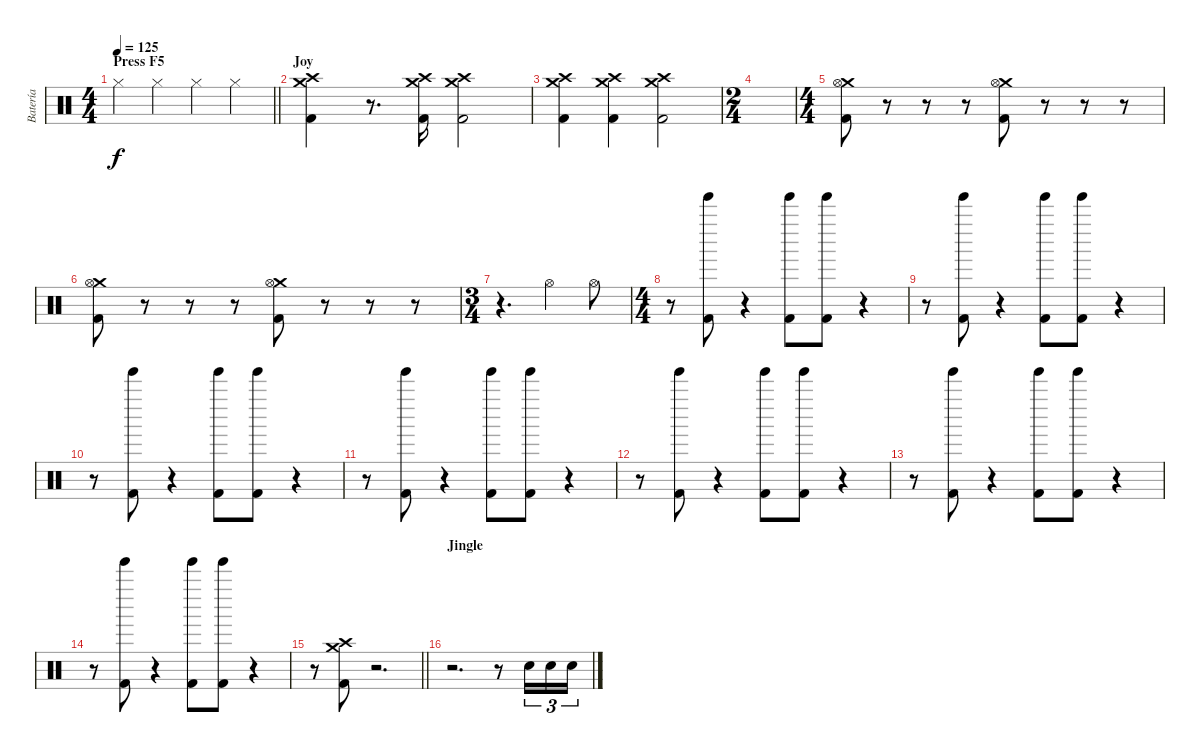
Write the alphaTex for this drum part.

\track ("Batería" "Batería") {instrument percussion}
\staff {score}
\articulation defaults
\ts (4 4)
\section ("" "Press F5")
\tempo 125
\clef neutral
\barLineRight lightlight
\ks c "Hi-Hat (closed)".4{dy f} "Hi-Hat (closed)".4 "Hi-Hat (closed)".4 "Hi-Hat (closed)".4
|
\section ("" "Joy")
("Crash medium (hit)" "Crash high (hit)" "Kick (hit) 2").4 r.8{d} ("Crash medium (hit)" "Crash high (hit)" "Kick (hit) 2").16 ("Crash medium (hit)" "Crash high (hit)" "Kick (hit) 2").2 |
("Crash medium (hit)" "Crash high (hit)" "Kick (hit) 2").4 ("Crash medium (hit)" "Crash high (hit)" "Kick (hit) 2").4 ("Crash medium (hit)" "Crash high (hit)" "Kick (hit) 2").2 |
\ts (2 4)
|
\ts (4 4)
("Crash medium (hit)" "Kick (hit) 2" "Hi-Hat (open)").8 r.8 r.8 r.8 ("Crash medium (hit)" "Kick (hit) 2" "Hi-Hat (open)").8 r.8 r.8 r.8 |
("Crash medium (hit)" "Kick (hit) 2" "Hi-Hat (open)").8 r.8 r.8 r.8 ("Crash medium (hit)" "Kick (hit) 2" "Hi-Hat (open)").8 r.8 r.8 r.8 |
\ts (3 4)
r.4{d} "Hi-Hat (open)".4 "Hi-Hat (open)".8 |
\ts (4 4)
r.8 ("Tinkle Bell (hit)" "Kick (hit) 2").8 r.4 ("Tinkle Bell (hit)" "Kick (hit) 2").8 ("Tinkle Bell (hit)" "Kick (hit) 2").8 r.4 |
r.8 ("Tinkle Bell (hit)" "Kick (hit) 2").8 r.4 ("Tinkle Bell (hit)" "Kick (hit) 2").8 ("Tinkle Bell (hit)" "Kick (hit) 2").8 r.4 |
r.8 ("Tinkle Bell (hit)" "Kick (hit) 2").8 r.4 ("Tinkle Bell (hit)" "Kick (hit) 2").8 ("Tinkle Bell (hit)" "Kick (hit) 2").8 r.4 |
r.8 ("Tinkle Bell (hit)" "Kick (hit) 2").8 r.4 ("Tinkle Bell (hit)" "Kick (hit) 2").8 ("Tinkle Bell (hit)" "Kick (hit) 2").8 r.4 |
r.8 ("Tinkle Bell (hit)" "Kick (hit) 2").8 r.4 ("Tinkle Bell (hit)" "Kick (hit) 2").8 ("Tinkle Bell (hit)" "Kick (hit) 2").8 r.4 |
r.8 ("Tinkle Bell (hit)" "Kick (hit) 2").8 r.4 ("Tinkle Bell (hit)" "Kick (hit) 2").8 ("Tinkle Bell (hit)" "Kick (hit) 2").8 r.4 |
r.8 ("Tinkle Bell (hit)" "Kick (hit) 2").8 r.4 ("Tinkle Bell (hit)" "Kick (hit) 2").8 ("Tinkle Bell (hit)" "Kick (hit) 2").8 r.4 |
\barLineRight lightlight
r.8 ("Crash medium (hit)" "Crash high (hit)" "Kick (hit) 2").8 r.2{d} |
\section ("" "Jingle")
r.2{d} r.8 "Snare (hit) 2".16{tu (3 2)} "Snare (hit) 2".16{tu (3 2)} "Snare (hit) 2".16{tu (3 2)}
